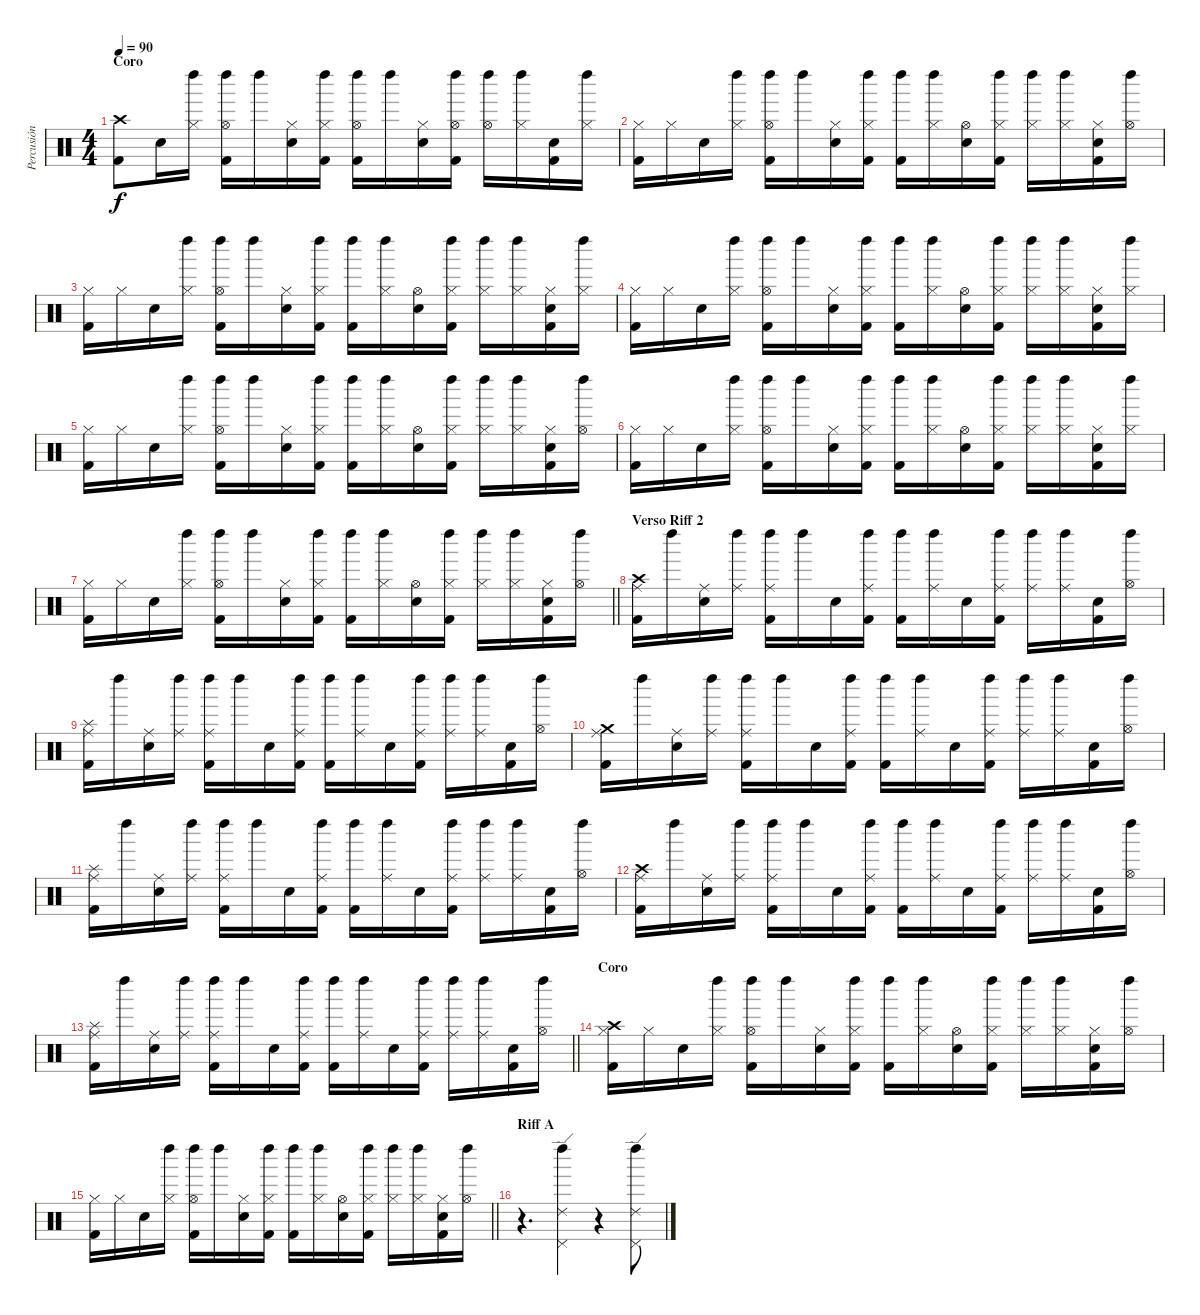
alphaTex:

\track ("Percusión" "Percusión") {instrument percussion}
\staff {score}
\articulation defaults
\ts (4 4)
\section ("" "Coro")
\tempo 90
\clef neutral
\ks c
("Crash high (hit)" "Kick (hit) 2").8{dy f} "Snare (hit) 2".16 ("Hi-Hat (closed)" "Left Maraca (hit)").16 ("Hi-Hat (open)" "Left Maraca (hit)" "Kick (hit) 2").16 "Left Maraca (hit)".16 ("Hi-Hat (closed)" "Snare (hit) 2").16 ("Hi-Hat (closed)" "Left Maraca (hit)" "Kick (hit) 2").16 ("Hi-Hat (open)" "Left Maraca (hit)" "Kick (hit) 2").16 "Left Maraca (hit)".16 ("Hi-Hat (closed)" "Snare (hit) 2").16 ("Hi-Hat (open)" "Left Maraca (hit)" "Kick (hit) 2").16 ("Hi-Hat (open)" "Left Maraca (hit)").16 ("Hi-Hat (closed)" "Left Maraca (hit)").16 ("Snare (hit) 2" "Kick (hit) 2").16 ("Hi-Hat (closed)" "Left Maraca (hit)").16 |
("Hi-Hat (closed)" "Kick (hit) 2").16 "Hi-Hat (closed)".16 "Snare (hit) 2".16 ("Hi-Hat (closed)" "Left Maraca (hit)").16 ("Hi-Hat (open)" "Left Maraca (hit)" "Kick (hit) 2").16 "Left Maraca (hit)".16 ("Hi-Hat (closed)" "Snare (hit) 2").16 ("Hi-Hat (closed)" "Left Maraca (hit)" "Kick (hit) 2").16 ("Left Maraca (hit)" "Kick (hit) 2").16 ("Hi-Hat (closed)" "Left Maraca (hit)").16 ("Hi-Hat (open)" "Snare (hit) 2").16 ("Hi-Hat (closed)" "Left Maraca (hit)" "Kick (hit) 2").16 ("Hi-Hat (closed)" "Left Maraca (hit)").16 ("Hi-Hat (closed)" "Left Maraca (hit)").16 ("Hi-Hat (closed)" "Snare (hit) 2" "Kick (hit) 2").16 ("Hi-Hat (open)" "Left Maraca (hit)").16 |
("Hi-Hat (closed)" "Kick (hit) 2").16 "Hi-Hat (closed)".16 "Snare (hit) 2".16 ("Hi-Hat (closed)" "Left Maraca (hit)").16 ("Hi-Hat (open)" "Left Maraca (hit)" "Kick (hit) 2").16 "Left Maraca (hit)".16 ("Hi-Hat (closed)" "Snare (hit) 2").16 ("Hi-Hat (closed)" "Left Maraca (hit)" "Kick (hit) 2").16 ("Left Maraca (hit)" "Kick (hit) 2").16 ("Hi-Hat (closed)" "Left Maraca (hit)").16 ("Hi-Hat (open)" "Snare (hit) 2").16 ("Hi-Hat (closed)" "Left Maraca (hit)" "Kick (hit) 2").16 ("Hi-Hat (closed)" "Left Maraca (hit)").16 ("Hi-Hat (closed)" "Left Maraca (hit)").16 ("Hi-Hat (closed)" "Snare (hit) 2" "Kick (hit) 2").16 ("Hi-Hat (closed)" "Left Maraca (hit)").16 |
("Hi-Hat (closed)" "Kick (hit) 2").16 "Hi-Hat (closed)".16 "Snare (hit) 2".16 ("Hi-Hat (closed)" "Left Maraca (hit)").16 ("Hi-Hat (open)" "Left Maraca (hit)" "Kick (hit) 2").16 "Left Maraca (hit)".16 ("Hi-Hat (closed)" "Snare (hit) 2").16 ("Hi-Hat (closed)" "Left Maraca (hit)" "Kick (hit) 2").16 ("Left Maraca (hit)" "Kick (hit) 2").16 ("Hi-Hat (closed)" "Left Maraca (hit)").16 ("Hi-Hat (open)" "Snare (hit) 2").16 ("Hi-Hat (closed)" "Left Maraca (hit)" "Kick (hit) 2").16 ("Hi-Hat (closed)" "Left Maraca (hit)").16 ("Hi-Hat (closed)" "Left Maraca (hit)").16 ("Hi-Hat (closed)" "Snare (hit) 2" "Kick (hit) 2").16 ("Hi-Hat (closed)" "Left Maraca (hit)").16 |
("Hi-Hat (closed)" "Kick (hit) 2").16 "Hi-Hat (closed)".16 "Snare (hit) 2".16 ("Hi-Hat (closed)" "Left Maraca (hit)").16 ("Hi-Hat (open)" "Left Maraca (hit)" "Kick (hit) 2").16 "Left Maraca (hit)".16 ("Hi-Hat (closed)" "Snare (hit) 2").16 ("Hi-Hat (closed)" "Left Maraca (hit)" "Kick (hit) 2").16 ("Left Maraca (hit)" "Kick (hit) 2").16 ("Hi-Hat (closed)" "Left Maraca (hit)").16 ("Hi-Hat (open)" "Snare (hit) 2").16 ("Hi-Hat (closed)" "Left Maraca (hit)" "Kick (hit) 2").16 ("Hi-Hat (closed)" "Left Maraca (hit)").16 ("Hi-Hat (closed)" "Left Maraca (hit)").16 ("Hi-Hat (closed)" "Snare (hit) 2" "Kick (hit) 2").16 ("Hi-Hat (open)" "Left Maraca (hit)").16 |
("Hi-Hat (closed)" "Kick (hit) 2").16 "Hi-Hat (closed)".16 "Snare (hit) 2".16 ("Hi-Hat (closed)" "Left Maraca (hit)").16 ("Hi-Hat (open)" "Left Maraca (hit)" "Kick (hit) 2").16 "Left Maraca (hit)".16 ("Hi-Hat (closed)" "Snare (hit) 2").16 ("Hi-Hat (closed)" "Left Maraca (hit)" "Kick (hit) 2").16 ("Left Maraca (hit)" "Kick (hit) 2").16 ("Hi-Hat (closed)" "Left Maraca (hit)").16 ("Hi-Hat (open)" "Snare (hit) 2").16 ("Hi-Hat (closed)" "Left Maraca (hit)" "Kick (hit) 2").16 ("Hi-Hat (closed)" "Left Maraca (hit)").16 ("Hi-Hat (closed)" "Left Maraca (hit)").16 ("Hi-Hat (closed)" "Snare (hit) 2" "Kick (hit) 2").16 ("Hi-Hat (closed)" "Left Maraca (hit)").16 |
\barLineRight lightlight
("Hi-Hat (closed)" "Kick (hit) 2").16 "Hi-Hat (closed)".16 "Snare (hit) 2".16 ("Hi-Hat (closed)" "Left Maraca (hit)").16 ("Hi-Hat (open)" "Left Maraca (hit)" "Kick (hit) 2").16 "Left Maraca (hit)".16 ("Hi-Hat (closed)" "Snare (hit) 2").16 ("Hi-Hat (closed)" "Left Maraca (hit)" "Kick (hit) 2").16 ("Left Maraca (hit)" "Kick (hit) 2").16 ("Hi-Hat (closed)" "Left Maraca (hit)").16 ("Hi-Hat (open)" "Snare (hit) 2").16 ("Hi-Hat (closed)" "Left Maraca (hit)" "Kick (hit) 2").16 ("Hi-Hat (closed)" "Left Maraca (hit)").16 ("Hi-Hat (closed)" "Left Maraca (hit)").16 ("Hi-Hat (closed)" "Snare (hit) 2" "Kick (hit) 2").16 ("Hi-Hat (open)" "Left Maraca (hit)").16 |
\section ("" "Verso Riff 2")
("Ride (middle)" "Crash high (hit)" "Kick (hit) 2").16 "Left Maraca (hit)".16 ("Ride (middle)" "Snare (hit) 2").16 ("Ride (middle)" "Left Maraca (hit)").16 ("Ride (middle)" "Left Maraca (hit)" "Kick (hit) 2").16 "Left Maraca (hit)".16 "Snare (hit) 2".16 ("Ride (middle)" "Left Maraca (hit)" "Kick (hit) 2").16 ("Left Maraca (hit)" "Kick (hit) 2").16 ("Ride (middle)" "Left Maraca (hit)").16 "Snare (hit) 2".16 ("Ride (middle)" "Left Maraca (hit)" "Kick (hit) 2").16 ("Ride (middle)" "Left Maraca (hit)").16 ("Ride (middle)" "Left Maraca (hit)").16 ("Snare (hit) 2" "Kick (hit) 2").16 ("Hi-Hat (open)" "Left Maraca (hit)").16 |
("Ride (middle)" "Splash (hit)" "Kick (hit) 2").16 "Left Maraca (hit)".16 ("Ride (middle)" "Snare (hit) 2").16 ("Ride (middle)" "Left Maraca (hit)").16 ("Ride (middle)" "Left Maraca (hit)" "Kick (hit) 2").16 "Left Maraca (hit)".16 "Snare (hit) 2".16 ("Ride (middle)" "Left Maraca (hit)" "Kick (hit) 2").16 ("Left Maraca (hit)" "Kick (hit) 2").16 ("Ride (middle)" "Left Maraca (hit)").16 "Snare (hit) 2".16 ("Ride (middle)" "Left Maraca (hit)" "Kick (hit) 2").16 ("Ride (middle)" "Left Maraca (hit)").16 ("Ride (middle)" "Left Maraca (hit)").16 ("Snare (hit) 2" "Kick (hit) 2").16 ("Hi-Hat (open)" "Left Maraca (hit)").16 |
("Ride (middle)" "Crash medium (hit)" "Kick (hit) 2").16 "Left Maraca (hit)".16 ("Ride (middle)" "Snare (hit) 2").16 ("Ride (middle)" "Left Maraca (hit)").16 ("Ride (middle)" "Left Maraca (hit)" "Kick (hit) 2").16 "Left Maraca (hit)".16 "Snare (hit) 2".16 ("Ride (middle)" "Left Maraca (hit)" "Kick (hit) 2").16 ("Left Maraca (hit)" "Kick (hit) 2").16 ("Ride (middle)" "Left Maraca (hit)").16 "Snare (hit) 2".16 ("Ride (middle)" "Left Maraca (hit)" "Kick (hit) 2").16 ("Ride (middle)" "Left Maraca (hit)").16 ("Ride (middle)" "Left Maraca (hit)").16 ("Snare (hit) 2" "Kick (hit) 2").16 ("Hi-Hat (open)" "Left Maraca (hit)").16 |
("Ride (middle)" "Splash (hit)" "Kick (hit) 2").16 "Left Maraca (hit)".16 ("Ride (middle)" "Snare (hit) 2").16 ("Ride (middle)" "Left Maraca (hit)").16 ("Ride (middle)" "Left Maraca (hit)" "Kick (hit) 2").16 "Left Maraca (hit)".16 "Snare (hit) 2".16 ("Ride (middle)" "Left Maraca (hit)" "Kick (hit) 2").16 ("Left Maraca (hit)" "Kick (hit) 2").16 ("Ride (middle)" "Left Maraca (hit)").16 "Snare (hit) 2".16 ("Ride (middle)" "Left Maraca (hit)" "Kick (hit) 2").16 ("Ride (middle)" "Left Maraca (hit)").16 ("Ride (middle)" "Left Maraca (hit)").16 ("Snare (hit) 2" "Kick (hit) 2").16 ("Hi-Hat (open)" "Left Maraca (hit)").16 |
("Ride (middle)" "Crash high (hit)" "Kick (hit) 2").16 "Left Maraca (hit)".16 ("Ride (middle)" "Snare (hit) 2").16 ("Ride (middle)" "Left Maraca (hit)").16 ("Ride (middle)" "Left Maraca (hit)" "Kick (hit) 2").16 "Left Maraca (hit)".16 "Snare (hit) 2".16 ("Ride (middle)" "Left Maraca (hit)" "Kick (hit) 2").16 ("Left Maraca (hit)" "Kick (hit) 2").16 ("Ride (middle)" "Left Maraca (hit)").16 "Snare (hit) 2".16 ("Ride (middle)" "Left Maraca (hit)" "Kick (hit) 2").16 ("Ride (middle)" "Left Maraca (hit)").16 ("Ride (middle)" "Left Maraca (hit)").16 ("Snare (hit) 2" "Kick (hit) 2").16 ("Hi-Hat (open)" "Left Maraca (hit)").16 |
\barLineRight lightlight
("Ride (middle)" "Splash (hit)" "Kick (hit) 2").16 "Left Maraca (hit)".16 ("Ride (middle)" "Snare (hit) 2").16 ("Ride (middle)" "Left Maraca (hit)").16 ("Ride (middle)" "Left Maraca (hit)" "Kick (hit) 2").16 "Left Maraca (hit)".16 "Snare (hit) 2".16 ("Ride (middle)" "Left Maraca (hit)" "Kick (hit) 2").16 ("Left Maraca (hit)" "Kick (hit) 2").16 ("Ride (middle)" "Left Maraca (hit)").16 "Snare (hit) 2".16 ("Ride (middle)" "Left Maraca (hit)" "Kick (hit) 2").16 ("Ride (middle)" "Left Maraca (hit)").16 ("Ride (middle)" "Left Maraca (hit)").16 ("Snare (hit) 2" "Kick (hit) 2").16 ("Hi-Hat (open)" "Left Maraca (hit)").16 |
\section ("" "Coro")
("Hi-Hat (closed)" "Crash high (hit)" "Kick (hit) 2").16 "Hi-Hat (closed)".16 "Snare (hit) 2".16 ("Hi-Hat (closed)" "Left Maraca (hit)").16 ("Hi-Hat (open)" "Left Maraca (hit)" "Kick (hit) 2").16 "Left Maraca (hit)".16 ("Hi-Hat (closed)" "Snare (hit) 2").16 ("Hi-Hat (closed)" "Left Maraca (hit)" "Kick (hit) 2").16 ("Left Maraca (hit)" "Kick (hit) 2").16 ("Hi-Hat (closed)" "Left Maraca (hit)").16 ("Hi-Hat (open)" "Snare (hit) 2").16 ("Hi-Hat (closed)" "Left Maraca (hit)" "Kick (hit) 2").16 ("Hi-Hat (closed)" "Left Maraca (hit)").16 ("Hi-Hat (closed)" "Left Maraca (hit)").16 ("Hi-Hat (closed)" "Snare (hit) 2" "Kick (hit) 2").16 ("Hi-Hat (open)" "Left Maraca (hit)").16 |
\barLineRight lightlight
("Hi-Hat (closed)" "Kick (hit) 2").16 "Hi-Hat (closed)".16 "Snare (hit) 2".16 ("Hi-Hat (closed)" "Left Maraca (hit)").16 ("Hi-Hat (open)" "Left Maraca (hit)" "Kick (hit) 2").16 "Left Maraca (hit)".16 ("Hi-Hat (closed)" "Snare (hit) 2").16 ("Hi-Hat (closed)" "Left Maraca (hit)" "Kick (hit) 2").16 ("Left Maraca (hit)" "Kick (hit) 2").16 ("Hi-Hat (closed)" "Left Maraca (hit)").16 ("Hi-Hat (open)" "Snare (hit) 2").16 ("Hi-Hat (closed)" "Left Maraca (hit)" "Kick (hit) 2").16 ("Hi-Hat (closed)" "Left Maraca (hit)").16 ("Hi-Hat (closed)" "Left Maraca (hit)").16 ("Hi-Hat (closed)" "Snare (hit) 2" "Kick (hit) 2").16 ("Hi-Hat (open)" "Left Maraca (hit)").16 |
\section ("" "Riff A")
r.4{d} ("Pedal Hi-Hat (hit)" "Ride (edge) 2" "Left Maraca (hit)").4 r.4 ("Pedal Hi-Hat (hit)" "Ride (edge) 2" "Left Maraca (hit)").8
